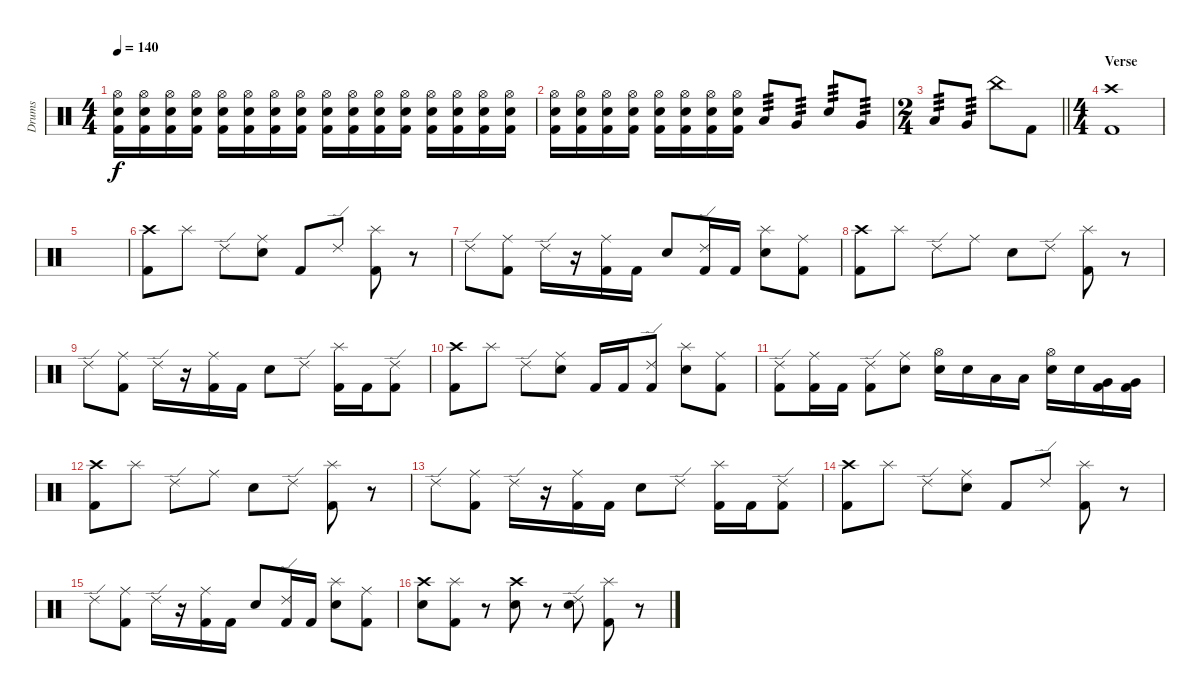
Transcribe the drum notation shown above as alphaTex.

\track ("Drums" "Drums") {instrument percussion}
\staff {score}
\articulation defaults
\ts (4 4)
\tempo 140
\clef neutral
\ks c
("Hi-Hat (open)" "Snare (hit) 2" "Kick (hit) 2").16{dy f} ("Hi-Hat (open)" "Snare (hit) 2" "Kick (hit) 2").16 ("Hi-Hat (open)" "Snare (hit) 2" "Kick (hit) 2").16 ("Hi-Hat (open)" "Snare (hit) 2" "Kick (hit) 2").16 ("Hi-Hat (open)" "Snare (hit) 2" "Kick (hit) 2").16 ("Hi-Hat (open)" "Snare (hit) 2" "Kick (hit) 2").16 ("Hi-Hat (open)" "Snare (hit) 2" "Kick (hit) 2").16 ("Hi-Hat (open)" "Snare (hit) 2" "Kick (hit) 2").16 ("Hi-Hat (open)" "Snare (hit) 2" "Kick (hit) 2").16 ("Hi-Hat (open)" "Snare (hit) 2" "Kick (hit) 2").16 ("Hi-Hat (open)" "Snare (hit) 2" "Kick (hit) 2").16 ("Hi-Hat (open)" "Snare (hit) 2" "Kick (hit) 2").16 ("Hi-Hat (open)" "Snare (hit) 2" "Kick (hit) 2").16 ("Hi-Hat (open)" "Snare (hit) 2" "Kick (hit) 2").16 ("Hi-Hat (open)" "Snare (hit) 2" "Kick (hit) 2").16 ("Hi-Hat (open)" "Snare (hit) 2" "Kick (hit) 2").16 |
("Hi-Hat (open)" "Snare (hit) 2" "Kick (hit) 2").16 ("Hi-Hat (open)" "Snare (hit) 2" "Kick (hit) 2").16 ("Hi-Hat (open)" "Snare (hit) 2" "Kick (hit) 2").16 ("Hi-Hat (open)" "Snare (hit) 2" "Kick (hit) 2").16 ("Hi-Hat (open)" "Snare (hit) 2" "Kick (hit) 2").16 ("Hi-Hat (open)" "Snare (hit) 2" "Kick (hit) 2").16 ("Hi-Hat (open)" "Snare (hit) 2" "Kick (hit) 2").16 ("Hi-Hat (open)" "Snare (hit) 2" "Kick (hit) 2").16 "Low Tom (hit)".8{tp 3} "Very Low Tom (hit)".8{tp 3} "Snare (hit) 2".8{tp 3} "Very Low Tom (hit)".8{tp 3} |
\ts (2 4)
\barLineRight lightlight "Low Tom (hit)".8{tp 3} "Very Low Tom (hit)".8{tp 3} "China (hit)".8 "Kick (hit) 2".8
|
\ts (4 4)
\section ("" "Verse")
("Crash high (hit)" "Kick (hit) 2").1 |
|
("Crash high (hit)" "Kick (hit) 2").8 "Splash (hit)".8 "Ride (edge) 2".8 ("Ride (middle)" "Snare (hit) 2").8 "Kick (hit) 2".8 "Ride (edge) 2".8 ("Splash (hit)" "Kick (hit) 2").8 r.8 |
"Ride (edge) 2".8 ("Ride (middle)" "Kick (hit) 2").8 "Ride (edge) 2".16 r.16 ("Ride (middle)" "Kick (hit) 2").16 "Kick (hit) 2".16 "Snare (hit) 2".8 ("Ride (edge) 2" "Kick (hit) 2").16 "Kick (hit) 2".16 ("Splash (hit)" "Snare (hit) 2").8 ("Ride (middle)" "Kick (hit) 2").8 |
("Crash high (hit)" "Kick (hit) 2").8 "Splash (hit)".8 "Ride (edge) 2".8 "Ride (middle)".8 "Snare (hit) 2".8 "Ride (edge) 2".8 ("Splash (hit)" "Kick (hit) 2").8 r.8 |
"Ride (edge) 2".8 ("Ride (middle)" "Kick (hit) 2").8 "Ride (edge) 2".16 r.16 ("Ride (middle)" "Kick (hit) 2").16 "Kick (hit) 2".16 "Snare (hit) 2".8 "Ride (edge) 2".8 ("Splash (hit)" "Kick (hit) 2").16 "Kick (hit) 2".16 ("Ride (edge) 2" "Kick (hit) 2").8 |
("Crash high (hit)" "Kick (hit) 2").8 "Splash (hit)".8 "Ride (edge) 2".8 ("Ride (middle)" "Snare (hit) 2").8 "Kick (hit) 2".16 "Kick (hit) 2".16 ("Ride (edge) 2" "Kick (hit) 2").8 ("Splash (hit)" "Snare (hit) 2").8 ("Ride (middle)" "Kick (hit) 2").8 |
("Ride (edge) 2" "Kick (hit) 2").8 ("Ride (middle)" "Kick (hit) 2").16 "Kick (hit) 2".16 ("Ride (edge) 2" "Kick (hit) 2").8 ("Ride (middle)" "Snare (hit) 2").8 ("Hi-Hat (open)" "Snare (hit) 2").16 "Snare (hit) 2".16 "Low Tom (hit)".16 "Low Tom (hit)".16 ("Hi-Hat (open)" "Snare (hit) 2").16 "Snare (hit) 2".16 ("Very Low Tom (hit)" "Kick (hit) 2").16 ("Very Low Tom (hit)" "Kick (hit) 2").16 |
("Crash high (hit)" "Kick (hit) 2").8 "Splash (hit)".8 "Ride (edge) 2".8 "Ride (middle)".8 "Snare (hit) 2".8 "Ride (edge) 2".8 ("Splash (hit)" "Kick (hit) 2").8 r.8 |
"Ride (edge) 2".8 ("Ride (middle)" "Kick (hit) 2").8 "Ride (edge) 2".16 r.16 ("Ride (middle)" "Kick (hit) 2").16 "Kick (hit) 2".16 "Snare (hit) 2".8 "Ride (edge) 2".8 ("Splash (hit)" "Kick (hit) 2").16 "Kick (hit) 2".16 ("Ride (edge) 2" "Kick (hit) 2").8 |
("Crash high (hit)" "Kick (hit) 2").8 "Splash (hit)".8 "Ride (edge) 2".8 ("Ride (middle)" "Snare (hit) 2").8 "Kick (hit) 2".8 "Ride (edge) 2".8 ("Splash (hit)" "Kick (hit) 2").8 r.8 |
"Ride (edge) 2".8 ("Ride (middle)" "Kick (hit) 2").8 "Ride (edge) 2".16 r.16 ("Ride (middle)" "Kick (hit) 2").16 "Kick (hit) 2".16 "Snare (hit) 2".8 ("Ride (edge) 2" "Kick (hit) 2").16 "Kick (hit) 2".16 ("Splash (hit)" "Snare (hit) 2").8 ("Ride (middle)" "Kick (hit) 2").8 |
("Crash high (hit)" "Snare (hit) 2").8 ("Splash (hit)" "Kick (hit) 2").8 r.8 ("Crash high (hit)" "Snare (hit) 2").8 r.8 ("Ride (edge) 2" "Snare (hit) 2").8 ("Splash (hit)" "Kick (hit) 2").8 r.8
